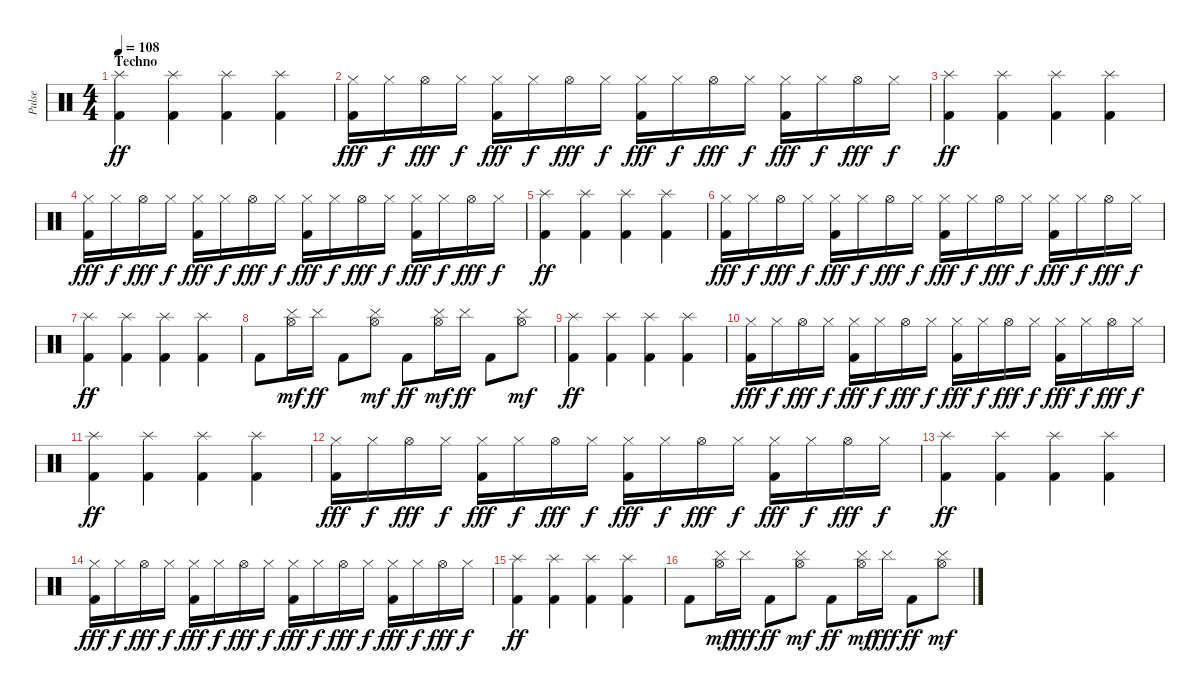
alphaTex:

\track ("Pulse" "Pulse") {instrument percussion}
\staff {score}
\articulation defaults
\ts (4 4)
\section ("" "Techno")
\tempo 108
\clef neutral
\ks c
("Kick (hit) 2" "Splash (hit)").4{dy ff} ("Kick (hit) 2" "Splash (hit)").4 ("Kick (hit) 2" "Splash (hit)").4 ("Kick (hit) 2" "Splash (hit)").4 |
("Kick (hit) 2" "Hi-Hat (closed)").16{dy fff} "Hi-Hat (closed)".16{dy f} "Hi-Hat (open)".16{dy fff} "Hi-Hat (closed)".16{dy f} ("Kick (hit) 2" "Hi-Hat (closed)").16{dy fff} "Hi-Hat (closed)".16{dy f} "Hi-Hat (open)".16{dy fff} "Hi-Hat (closed)".16{dy f} ("Kick (hit) 2" "Hi-Hat (closed)").16{dy fff} "Hi-Hat (closed)".16{dy f} "Hi-Hat (open)".16{dy fff} "Hi-Hat (closed)".16{dy f} ("Kick (hit) 2" "Hi-Hat (closed)").16{dy fff} "Hi-Hat (closed)".16{dy f} "Hi-Hat (open)".16{dy fff} "Hi-Hat (closed)".16{dy f} |
("Kick (hit) 2" "Splash (hit)").4{dy ff} ("Kick (hit) 2" "Splash (hit)").4 ("Kick (hit) 2" "Splash (hit)").4 ("Kick (hit) 2" "Splash (hit)").4 |
("Kick (hit) 2" "Hi-Hat (closed)").16{dy fff} "Hi-Hat (closed)".16{dy f} "Hi-Hat (open)".16{dy fff} "Hi-Hat (closed)".16{dy f} ("Kick (hit) 2" "Hi-Hat (closed)").16{dy fff} "Hi-Hat (closed)".16{dy f} "Hi-Hat (open)".16{dy fff} "Hi-Hat (closed)".16{dy f} ("Kick (hit) 2" "Hi-Hat (closed)").16{dy fff} "Hi-Hat (closed)".16{dy f} "Hi-Hat (open)".16{dy fff} "Hi-Hat (closed)".16{dy f} ("Kick (hit) 2" "Hi-Hat (closed)").16{dy fff} "Hi-Hat (closed)".16{dy f} "Hi-Hat (open)".16{dy fff} "Hi-Hat (closed)".16{dy f} |
("Kick (hit) 2" "Splash (hit)").4{dy ff} ("Kick (hit) 2" "Splash (hit)").4 ("Kick (hit) 2" "Splash (hit)").4 ("Kick (hit) 2" "Splash (hit)").4 |
("Kick (hit) 2" "Hi-Hat (closed)").16{dy fff} "Hi-Hat (closed)".16{dy f} "Hi-Hat (open)".16{dy fff} "Hi-Hat (closed)".16{dy f} ("Kick (hit) 2" "Hi-Hat (closed)").16{dy fff} "Hi-Hat (closed)".16{dy f} "Hi-Hat (open)".16{dy fff} "Hi-Hat (closed)".16{dy f} ("Kick (hit) 2" "Hi-Hat (closed)").16{dy fff} "Hi-Hat (closed)".16{dy f} "Hi-Hat (open)".16{dy fff} "Hi-Hat (closed)".16{dy f} ("Kick (hit) 2" "Hi-Hat (closed)").16{dy fff} "Hi-Hat (closed)".16{dy f} "Hi-Hat (open)".16{dy fff} "Hi-Hat (closed)".16{dy f} |
("Kick (hit) 2" "Splash (hit)").4{dy ff} ("Kick (hit) 2" "Splash (hit)").4 ("Kick (hit) 2" "Splash (hit)").4 ("Kick (hit) 2" "Splash (hit)").4 |
"Kick (hit) 2".8 ("Cymbal (hit)" "Hi-Hat (open)").16{dy mf} "Cymbal (hit)".16{dy ff} "Kick (hit) 2".8 ("Cymbal (hit)" "Hi-Hat (open)").8{dy mf} "Kick (hit) 2".8{dy ff} ("Cymbal (hit)" "Hi-Hat (open)").16{dy mf} "Cymbal (hit)".16{dy ff} "Kick (hit) 2".8 ("Cymbal (hit)" "Hi-Hat (open)").8{dy mf} |
("Kick (hit) 2" "Splash (hit)").4{dy ff} ("Kick (hit) 2" "Splash (hit)").4 ("Kick (hit) 2" "Splash (hit)").4 ("Kick (hit) 2" "Splash (hit)").4 |
("Kick (hit) 2" "Hi-Hat (closed)").16{dy fff} "Hi-Hat (closed)".16{dy f} "Hi-Hat (open)".16{dy fff} "Hi-Hat (closed)".16{dy f} ("Kick (hit) 2" "Hi-Hat (closed)").16{dy fff} "Hi-Hat (closed)".16{dy f} "Hi-Hat (open)".16{dy fff} "Hi-Hat (closed)".16{dy f} ("Kick (hit) 2" "Hi-Hat (closed)").16{dy fff} "Hi-Hat (closed)".16{dy f} "Hi-Hat (open)".16{dy fff} "Hi-Hat (closed)".16{dy f} ("Kick (hit) 2" "Hi-Hat (closed)").16{dy fff} "Hi-Hat (closed)".16{dy f} "Hi-Hat (open)".16{dy fff} "Hi-Hat (closed)".16{dy f} |
("Kick (hit) 2" "Splash (hit)").4{dy ff} ("Kick (hit) 2" "Splash (hit)").4 ("Kick (hit) 2" "Splash (hit)").4 ("Kick (hit) 2" "Splash (hit)").4 |
("Kick (hit) 2" "Hi-Hat (closed)").16{dy fff} "Hi-Hat (closed)".16{dy f} "Hi-Hat (open)".16{dy fff} "Hi-Hat (closed)".16{dy f} ("Kick (hit) 2" "Hi-Hat (closed)").16{dy fff} "Hi-Hat (closed)".16{dy f} "Hi-Hat (open)".16{dy fff} "Hi-Hat (closed)".16{dy f} ("Kick (hit) 2" "Hi-Hat (closed)").16{dy fff} "Hi-Hat (closed)".16{dy f} "Hi-Hat (open)".16{dy fff} "Hi-Hat (closed)".16{dy f} ("Kick (hit) 2" "Hi-Hat (closed)").16{dy fff} "Hi-Hat (closed)".16{dy f} "Hi-Hat (open)".16{dy fff} "Hi-Hat (closed)".16{dy f} |
("Kick (hit) 2" "Splash (hit)").4{dy ff} ("Kick (hit) 2" "Splash (hit)").4 ("Kick (hit) 2" "Splash (hit)").4 ("Kick (hit) 2" "Splash (hit)").4 |
("Kick (hit) 2" "Hi-Hat (closed)").16{dy fff} "Hi-Hat (closed)".16{dy f} "Hi-Hat (open)".16{dy fff} "Hi-Hat (closed)".16{dy f} ("Kick (hit) 2" "Hi-Hat (closed)").16{dy fff} "Hi-Hat (closed)".16{dy f} "Hi-Hat (open)".16{dy fff} "Hi-Hat (closed)".16{dy f} ("Kick (hit) 2" "Hi-Hat (closed)").16{dy fff} "Hi-Hat (closed)".16{dy f} "Hi-Hat (open)".16{dy fff} "Hi-Hat (closed)".16{dy f} ("Kick (hit) 2" "Hi-Hat (closed)").16{dy fff} "Hi-Hat (closed)".16{dy f} "Hi-Hat (open)".16{dy fff} "Hi-Hat (closed)".16{dy f} |
("Kick (hit) 2" "Splash (hit)").4{dy ff} ("Kick (hit) 2" "Splash (hit)").4 ("Kick (hit) 2" "Splash (hit)").4 ("Kick (hit) 2" "Splash (hit)").4 |
"Kick (hit) 2".8 ("Cymbal (hit)" "Hi-Hat (open)").16{dy mf} "Cymbal (hit)".16{dy fff} "Kick (hit) 2".8{dy ff} ("Cymbal (hit)" "Hi-Hat (open)").8{dy mf} "Kick (hit) 2".8{dy ff} ("Cymbal (hit)" "Hi-Hat (open)").16{dy mf} "Cymbal (hit)".16{dy fff} "Kick (hit) 2".8{dy ff} ("Cymbal (hit)" "Hi-Hat (open)").8{dy mf}
